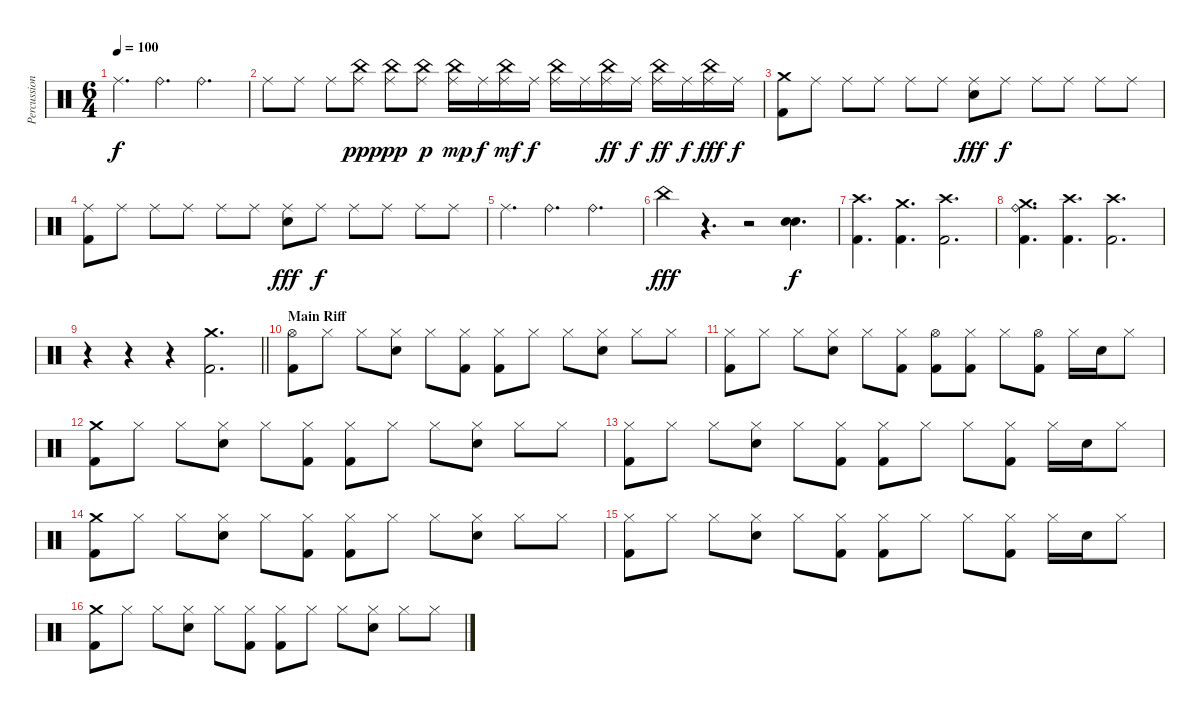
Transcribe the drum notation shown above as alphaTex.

\track ("Percussions" "Percussion") {instrument percussion}
\staff {score}
\articulation defaults
\ts (6 4)
\tempo 100
\clef neutral
\ks c "Ride (middle)".4{d dy f} "Ride (bell)".4{d} "Ride (bell)".2{d}
|
"Ride (middle)".8 "Ride (middle)".8 "Ride (middle)".8 ("China (hit)" "Ride (middle)").8{dy ppp} ("China (hit)" "Ride (middle)").8{dy pp} ("China (hit)" "Ride (middle)").8{dy p} ("China (hit)" "Ride (middle)").16{dy mp} "Ride (middle)".16{dy f} ("China (hit)" "Ride (middle)").16{dy mf} "Ride (middle)".16{dy f} ("China (hit)" "Ride (middle)").16 "Ride (middle)".16 ("China (hit)" "Ride (middle)").16{dy ff} "Ride (middle)".16{dy f} ("China (hit)" "Ride (middle)").16{dy ff} "Ride (middle)".16{dy f} ("China (hit)" "Ride (middle)").16{dy fff} "Ride (middle)".16{dy f} |
("Crash medium (hit)" "Kick (hit) 2").8 "Ride (middle)".8 "Ride (middle)".8 "Ride (middle)".8 "Ride (middle)".8 "Ride (middle)".8 ("Electric Snare (hit)" "Ride (middle)").8{dy fff} "Ride (middle)".8{dy f} "Ride (middle)".8 "Ride (middle)".8 "Ride (middle)".8 "Ride (middle)".8 |
("Kick (hit) 2" "Ride (middle)").8 "Ride (middle)".8 "Ride (middle)".8 "Ride (middle)".8 "Ride (middle)".8 "Ride (middle)".8 ("Electric Snare (hit)" "Ride (middle)").8{dy fff} "Ride (middle)".8{dy f} "Ride (middle)".8 "Ride (middle)".8 "Ride (middle)".8 "Ride (middle)".8 |
"Ride (middle)".4{d} "Ride (bell)".4{d} "Ride (bell)".2{d} |
"China (hit)".4{dy fff} r.4{d} r.2 ("Electric Snare (hit)" "Electric Snare (hit)").4{d bd 240 dy f} |
("Crash high (hit)" "Kick (hit) 2").4{d} ("Crash medium (hit)" "Kick (hit) 2").4{d} ("Crash high (hit)" "Kick (hit) 2").2{d} |
("Crash medium (hit)" "Ride (bell)" "Kick (hit) 2").4{d} ("Crash high (hit)" "Kick (hit) 2").4{d} ("Crash high (hit)" "Kick (hit) 2").2{d} |
\barLineRight lightlight
r.4 r.4 r.4 ("Crash medium (hit)" "Kick (hit) 2").2{d} |
\section ("" "Main Riff")
("Hi-Hat (open)" "Kick (hit) 2").8 "Hi-Hat (closed)".8 "Hi-Hat (closed)".8 ("Electric Snare (hit)" "Hi-Hat (closed)").8 "Hi-Hat (closed)".8 ("Hi-Hat (closed)" "Kick (hit) 2").8 ("Hi-Hat (closed)" "Kick (hit) 2").8 "Hi-Hat (closed)".8 "Hi-Hat (closed)".8 ("Electric Snare (hit)" "Hi-Hat (closed)").8 "Hi-Hat (closed)".8 "Hi-Hat (closed)".8 |
("Hi-Hat (closed)" "Kick (hit) 2").8 "Hi-Hat (closed)".8 "Hi-Hat (closed)".8 ("Electric Snare (hit)" "Hi-Hat (closed)").8 "Hi-Hat (closed)".8 ("Hi-Hat (closed)" "Kick (hit) 2").8 ("Hi-Hat (open)" "Kick (hit) 2").8 ("Hi-Hat (closed)" "Kick (hit) 2").8 "Hi-Hat (closed)".8 ("Hi-Hat (open)" "Kick (hit) 2").8 "Hi-Hat (closed)".16 "Electric Snare (hit)".16 "Hi-Hat (closed)".8 |
("Crash medium (hit)" "Kick (hit) 2").8 "Hi-Hat (closed)".8 "Hi-Hat (closed)".8 ("Electric Snare (hit)" "Hi-Hat (closed)").8 "Hi-Hat (closed)".8 ("Hi-Hat (closed)" "Kick (hit) 2").8 ("Hi-Hat (closed)" "Kick (hit) 2").8 "Hi-Hat (closed)".8 "Hi-Hat (closed)".8 ("Electric Snare (hit)" "Hi-Hat (closed)").8 "Hi-Hat (closed)".8 "Hi-Hat (closed)".8 |
("Hi-Hat (closed)" "Kick (hit) 2").8 "Hi-Hat (closed)".8 "Hi-Hat (closed)".8 ("Electric Snare (hit)" "Hi-Hat (closed)").8 "Hi-Hat (closed)".8 ("Hi-Hat (closed)" "Kick (hit) 2").8 ("Hi-Hat (closed)" "Kick (hit) 2").8 "Hi-Hat (closed)".8 "Hi-Hat (closed)".8 ("Hi-Hat (closed)" "Kick (hit) 2").8 "Hi-Hat (closed)".16 "Electric Snare (hit)".16 "Hi-Hat (closed)".8 |
("Crash medium (hit)" "Kick (hit) 2").8 "Hi-Hat (closed)".8 "Hi-Hat (closed)".8 ("Electric Snare (hit)" "Hi-Hat (closed)").8 "Hi-Hat (closed)".8 ("Hi-Hat (closed)" "Kick (hit) 2").8 ("Hi-Hat (closed)" "Kick (hit) 2").8 "Hi-Hat (closed)".8 "Hi-Hat (closed)".8 ("Electric Snare (hit)" "Hi-Hat (closed)").8 "Hi-Hat (closed)".8 "Hi-Hat (closed)".8 |
("Hi-Hat (closed)" "Kick (hit) 2").8 "Hi-Hat (closed)".8 "Hi-Hat (closed)".8 ("Electric Snare (hit)" "Hi-Hat (closed)").8 "Hi-Hat (closed)".8 ("Hi-Hat (closed)" "Kick (hit) 2").8 ("Hi-Hat (closed)" "Kick (hit) 2").8 "Hi-Hat (closed)".8 "Hi-Hat (closed)".8 ("Hi-Hat (closed)" "Kick (hit) 2").8 "Hi-Hat (closed)".16 "Electric Snare (hit)".16 "Hi-Hat (closed)".8 |
("Crash medium (hit)" "Kick (hit) 2").8 "Hi-Hat (closed)".8 "Hi-Hat (closed)".8 ("Electric Snare (hit)" "Hi-Hat (closed)").8 "Hi-Hat (closed)".8 ("Hi-Hat (closed)" "Kick (hit) 2").8 ("Hi-Hat (closed)" "Kick (hit) 2").8 "Hi-Hat (closed)".8 "Hi-Hat (closed)".8 ("Electric Snare (hit)" "Hi-Hat (closed)").8 "Hi-Hat (closed)".8 "Hi-Hat (closed)".8
